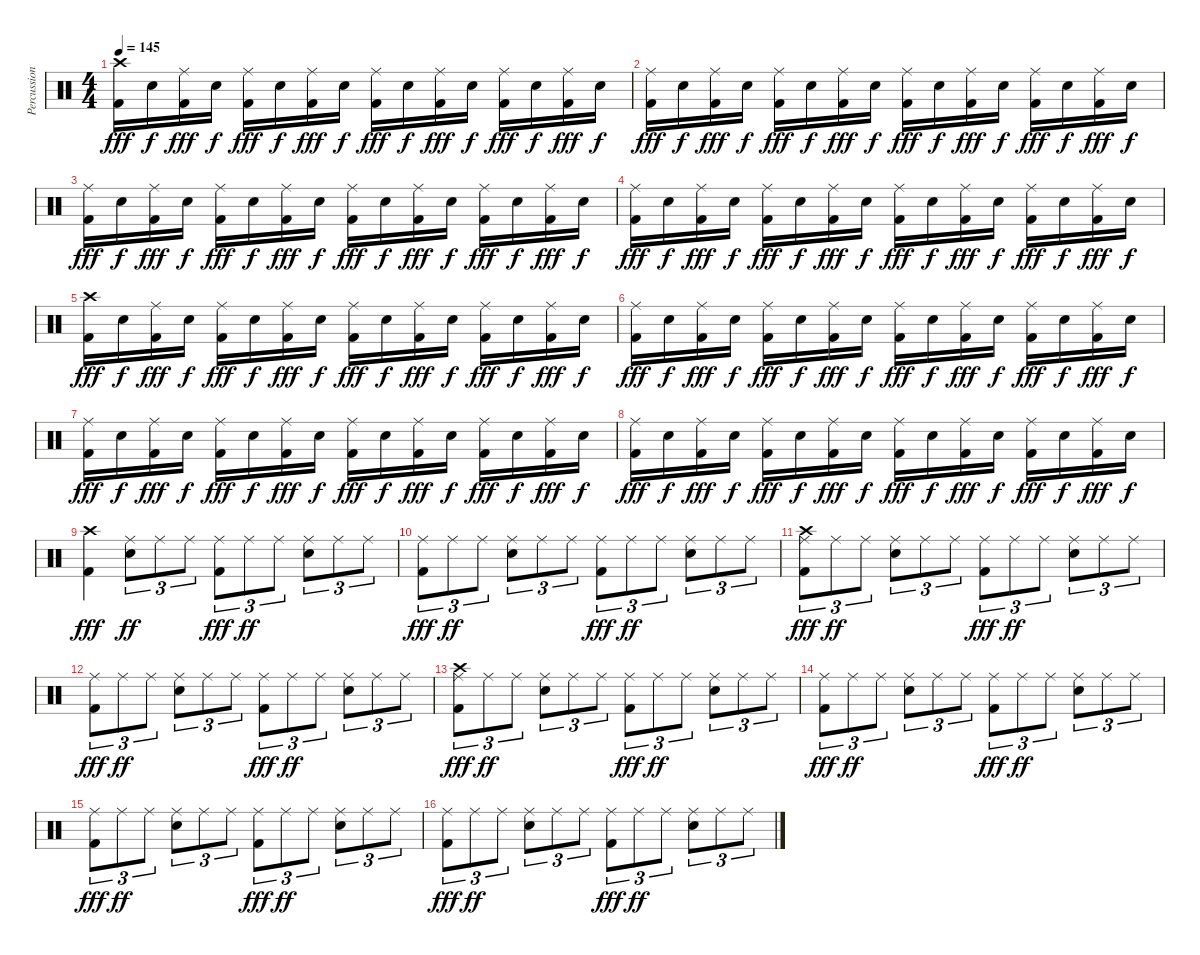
\track ("Percussion" "Percussion") {instrument percussion}
\staff {score}
\articulation defaults
\ts (4 4)
\tempo 145
\clef neutral
\ks c
("Crash high (hit)" "Kick (hit) 2").16{dy fff} "Snare (hit) 2".16{dy f} ("Ride (middle)" "Kick (hit) 2").16{dy fff} "Snare (hit) 2".16{dy f} ("Ride (middle)" "Kick (hit) 2").16{dy fff} "Snare (hit) 2".16{dy f} ("Ride (middle)" "Kick (hit) 2").16{dy fff} "Snare (hit) 2".16{dy f} ("Ride (middle)" "Kick (hit) 2").16{dy fff} "Snare (hit) 2".16{dy f} ("Ride (middle)" "Kick (hit) 2").16{dy fff} "Snare (hit) 2".16{dy f} ("Ride (middle)" "Kick (hit) 2").16{dy fff} "Snare (hit) 2".16{dy f} ("Ride (middle)" "Kick (hit) 2").16{dy fff} "Snare (hit) 2".16{dy f} |
("Ride (middle)" "Kick (hit) 2").16{dy fff} "Snare (hit) 2".16{dy f} ("Ride (middle)" "Kick (hit) 2").16{dy fff} "Snare (hit) 2".16{dy f} ("Ride (middle)" "Kick (hit) 2").16{dy fff} "Snare (hit) 2".16{dy f} ("Ride (middle)" "Kick (hit) 2").16{dy fff} "Snare (hit) 2".16{dy f} ("Ride (middle)" "Kick (hit) 2").16{dy fff} "Snare (hit) 2".16{dy f} ("Ride (middle)" "Kick (hit) 2").16{dy fff} "Snare (hit) 2".16{dy f} ("Ride (middle)" "Kick (hit) 2").16{dy fff} "Snare (hit) 2".16{dy f} ("Ride (middle)" "Kick (hit) 2").16{dy fff} "Snare (hit) 2".16{dy f} |
("Ride (middle)" "Kick (hit) 2").16{dy fff} "Snare (hit) 2".16{dy f} ("Ride (middle)" "Kick (hit) 2").16{dy fff} "Snare (hit) 2".16{dy f} ("Ride (middle)" "Kick (hit) 2").16{dy fff} "Snare (hit) 2".16{dy f} ("Ride (middle)" "Kick (hit) 2").16{dy fff} "Snare (hit) 2".16{dy f} ("Ride (middle)" "Kick (hit) 2").16{dy fff} "Snare (hit) 2".16{dy f} ("Ride (middle)" "Kick (hit) 2").16{dy fff} "Snare (hit) 2".16{dy f} ("Ride (middle)" "Kick (hit) 2").16{dy fff} "Snare (hit) 2".16{dy f} ("Ride (middle)" "Kick (hit) 2").16{dy fff} "Snare (hit) 2".16{dy f} |
("Ride (middle)" "Kick (hit) 2").16{dy fff} "Snare (hit) 2".16{dy f} ("Ride (middle)" "Kick (hit) 2").16{dy fff} "Snare (hit) 2".16{dy f} ("Ride (middle)" "Kick (hit) 2").16{dy fff} "Snare (hit) 2".16{dy f} ("Ride (middle)" "Kick (hit) 2").16{dy fff} "Snare (hit) 2".16{dy f} ("Ride (middle)" "Kick (hit) 2").16{dy fff} "Snare (hit) 2".16{dy f} ("Ride (middle)" "Kick (hit) 2").16{dy fff} "Snare (hit) 2".16{dy f} ("Ride (middle)" "Kick (hit) 2").16{dy fff} "Snare (hit) 2".16{dy f} ("Ride (middle)" "Kick (hit) 2").16{dy fff} "Snare (hit) 2".16{dy f} |
("Crash high (hit)" "Kick (hit) 2").16{dy fff} "Snare (hit) 2".16{dy f} ("Ride (middle)" "Kick (hit) 2").16{dy fff} "Snare (hit) 2".16{dy f} ("Ride (middle)" "Kick (hit) 2").16{dy fff} "Snare (hit) 2".16{dy f} ("Ride (middle)" "Kick (hit) 2").16{dy fff} "Snare (hit) 2".16{dy f} ("Ride (middle)" "Kick (hit) 2").16{dy fff} "Snare (hit) 2".16{dy f} ("Ride (middle)" "Kick (hit) 2").16{dy fff} "Snare (hit) 2".16{dy f} ("Ride (middle)" "Kick (hit) 2").16{dy fff} "Snare (hit) 2".16{dy f} ("Ride (middle)" "Kick (hit) 2").16{dy fff} "Snare (hit) 2".16{dy f} |
("Ride (middle)" "Kick (hit) 2").16{dy fff} "Snare (hit) 2".16{dy f} ("Ride (middle)" "Kick (hit) 2").16{dy fff} "Snare (hit) 2".16{dy f} ("Ride (middle)" "Kick (hit) 2").16{dy fff} "Snare (hit) 2".16{dy f} ("Ride (middle)" "Kick (hit) 2").16{dy fff} "Snare (hit) 2".16{dy f} ("Ride (middle)" "Kick (hit) 2").16{dy fff} "Snare (hit) 2".16{dy f} ("Ride (middle)" "Kick (hit) 2").16{dy fff} "Snare (hit) 2".16{dy f} ("Ride (middle)" "Kick (hit) 2").16{dy fff} "Snare (hit) 2".16{dy f} ("Ride (middle)" "Kick (hit) 2").16{dy fff} "Snare (hit) 2".16{dy f} |
("Ride (middle)" "Kick (hit) 2").16{dy fff} "Snare (hit) 2".16{dy f} ("Ride (middle)" "Kick (hit) 2").16{dy fff} "Snare (hit) 2".16{dy f} ("Ride (middle)" "Kick (hit) 2").16{dy fff} "Snare (hit) 2".16{dy f} ("Ride (middle)" "Kick (hit) 2").16{dy fff} "Snare (hit) 2".16{dy f} ("Ride (middle)" "Kick (hit) 2").16{dy fff} "Snare (hit) 2".16{dy f} ("Ride (middle)" "Kick (hit) 2").16{dy fff} "Snare (hit) 2".16{dy f} ("Ride (middle)" "Kick (hit) 2").16{dy fff} "Snare (hit) 2".16{dy f} ("Ride (middle)" "Kick (hit) 2").16{dy fff} "Snare (hit) 2".16{dy f} |
("Ride (middle)" "Kick (hit) 2").16{dy fff} "Snare (hit) 2".16{dy f} ("Ride (middle)" "Kick (hit) 2").16{dy fff} "Snare (hit) 2".16{dy f} ("Ride (middle)" "Kick (hit) 2").16{dy fff} "Snare (hit) 2".16{dy f} ("Ride (middle)" "Kick (hit) 2").16{dy fff} "Snare (hit) 2".16{dy f} ("Ride (middle)" "Kick (hit) 2").16{dy fff} "Snare (hit) 2".16{dy f} ("Ride (middle)" "Kick (hit) 2").16{dy fff} "Snare (hit) 2".16{dy f} ("Ride (middle)" "Kick (hit) 2").16{dy fff} "Snare (hit) 2".16{dy f} ("Ride (middle)" "Kick (hit) 2").16{dy fff} "Snare (hit) 2".16{dy f} |
("Crash high (hit)" "Kick (hit) 2").4{dy fff} ("Ride (middle)" "Snare (hit) 2").8{tu (3 2) dy ff} "Ride (middle)".8{tu (3 2)} "Ride (middle)".8{tu (3 2)} ("Ride (middle)" "Kick (hit) 2").8{tu (3 2) dy fff} "Ride (middle)".8{tu (3 2) dy ff} "Ride (middle)".8{tu (3 2)} ("Ride (middle)" "Snare (hit) 2").8{tu (3 2)} "Ride (middle)".8{tu (3 2)} "Ride (middle)".8{tu (3 2)} |
("Ride (middle)" "Kick (hit) 2").8{tu (3 2) dy fff} "Ride (middle)".8{tu (3 2) dy ff} "Ride (middle)".8{tu (3 2)} ("Ride (middle)" "Snare (hit) 2").8{tu (3 2)} "Ride (middle)".8{tu (3 2)} "Ride (middle)".8{tu (3 2)} ("Ride (middle)" "Kick (hit) 2").8{tu (3 2) dy fff} "Ride (middle)".8{tu (3 2) dy ff} "Ride (middle)".8{tu (3 2)} ("Ride (middle)" "Snare (hit) 2").8{tu (3 2)} "Ride (middle)".8{tu (3 2)} "Ride (middle)".8{tu (3 2)} |
("Crash high (hit)" "Ride (middle)" "Kick (hit) 2").8{tu (3 2) dy fff} "Ride (middle)".8{tu (3 2) dy ff} "Ride (middle)".8{tu (3 2)} ("Ride (middle)" "Snare (hit) 2").8{tu (3 2)} "Ride (middle)".8{tu (3 2)} "Ride (middle)".8{tu (3 2)} ("Ride (middle)" "Kick (hit) 2").8{tu (3 2) dy fff} "Ride (middle)".8{tu (3 2) dy ff} "Ride (middle)".8{tu (3 2)} ("Ride (middle)" "Snare (hit) 2").8{tu (3 2)} "Ride (middle)".8{tu (3 2)} "Ride (middle)".8{tu (3 2)} |
("Ride (middle)" "Kick (hit) 2").8{tu (3 2) dy fff} "Ride (middle)".8{tu (3 2) dy ff} "Ride (middle)".8{tu (3 2)} ("Ride (middle)" "Snare (hit) 2").8{tu (3 2)} "Ride (middle)".8{tu (3 2)} "Ride (middle)".8{tu (3 2)} ("Ride (middle)" "Kick (hit) 2").8{tu (3 2) dy fff} "Ride (middle)".8{tu (3 2) dy ff} "Ride (middle)".8{tu (3 2)} ("Ride (middle)" "Snare (hit) 2").8{tu (3 2)} "Ride (middle)".8{tu (3 2)} "Ride (middle)".8{tu (3 2)} |
("Crash high (hit)" "Ride (middle)" "Kick (hit) 2").8{tu (3 2) dy fff} "Ride (middle)".8{tu (3 2) dy ff} "Ride (middle)".8{tu (3 2)} ("Ride (middle)" "Snare (hit) 2").8{tu (3 2)} "Ride (middle)".8{tu (3 2)} "Ride (middle)".8{tu (3 2)} ("Ride (middle)" "Kick (hit) 2").8{tu (3 2) dy fff} "Ride (middle)".8{tu (3 2) dy ff} "Ride (middle)".8{tu (3 2)} ("Ride (middle)" "Snare (hit) 2").8{tu (3 2)} "Ride (middle)".8{tu (3 2)} "Ride (middle)".8{tu (3 2)} |
("Ride (middle)" "Kick (hit) 2").8{tu (3 2) dy fff} "Ride (middle)".8{tu (3 2) dy ff} "Ride (middle)".8{tu (3 2)} ("Ride (middle)" "Snare (hit) 2").8{tu (3 2)} "Ride (middle)".8{tu (3 2)} "Ride (middle)".8{tu (3 2)} ("Ride (middle)" "Kick (hit) 2").8{tu (3 2) dy fff} "Ride (middle)".8{tu (3 2) dy ff} "Ride (middle)".8{tu (3 2)} ("Ride (middle)" "Snare (hit) 2").8{tu (3 2)} "Ride (middle)".8{tu (3 2)} "Ride (middle)".8{tu (3 2)} |
("Ride (middle)" "Kick (hit) 2").8{tu (3 2) dy fff} "Ride (middle)".8{tu (3 2) dy ff} "Ride (middle)".8{tu (3 2)} ("Ride (middle)" "Snare (hit) 2").8{tu (3 2)} "Ride (middle)".8{tu (3 2)} "Ride (middle)".8{tu (3 2)} ("Ride (middle)" "Kick (hit) 2").8{tu (3 2) dy fff} "Ride (middle)".8{tu (3 2) dy ff} "Ride (middle)".8{tu (3 2)} ("Ride (middle)" "Snare (hit) 2").8{tu (3 2)} "Ride (middle)".8{tu (3 2)} "Ride (middle)".8{tu (3 2)} |
("Ride (middle)" "Kick (hit) 2").8{tu (3 2) dy fff} "Ride (middle)".8{tu (3 2) dy ff} "Ride (middle)".8{tu (3 2)} ("Ride (middle)" "Snare (hit) 2").8{tu (3 2)} "Ride (middle)".8{tu (3 2)} "Ride (middle)".8{tu (3 2)} ("Ride (middle)" "Kick (hit) 2").8{tu (3 2) dy fff} "Ride (middle)".8{tu (3 2) dy ff} "Ride (middle)".8{tu (3 2)} ("Ride (middle)" "Snare (hit) 2").8{tu (3 2)} "Ride (middle)".8{tu (3 2)} "Ride (middle)".8{tu (3 2)}
